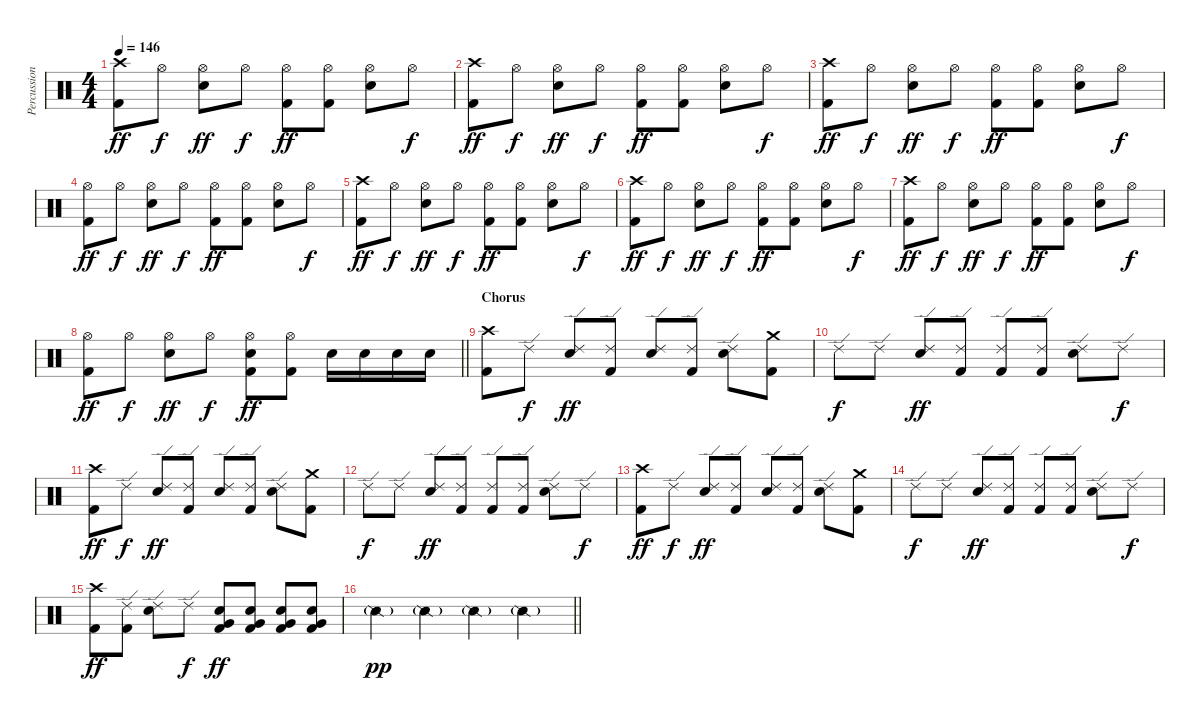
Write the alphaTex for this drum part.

\track ("Percussion" "Percussion") {instrument percussion}
\staff {score}
\articulation defaults
\ts (4 4)
\tempo 146
\clef neutral
\ks c
("Crash high (hit)" "Kick (hit) 2").8{dy ff} "Hi-Hat (open)".8{dy f} ("Hi-Hat (open)" "Snare (hit) 2").8{dy ff} "Hi-Hat (open)".8{dy f} ("Hi-Hat (open)" "Kick (hit) 2").8{dy ff} ("Hi-Hat (open)" "Kick (hit) 2").8 ("Hi-Hat (open)" "Snare (hit) 2").8 "Hi-Hat (open)".8{dy f} |
("Crash high (hit)" "Kick (hit) 2").8{dy ff} "Hi-Hat (open)".8{dy f} ("Hi-Hat (open)" "Snare (hit) 2").8{dy ff} "Hi-Hat (open)".8{dy f} ("Hi-Hat (open)" "Kick (hit) 2").8{dy ff} ("Hi-Hat (open)" "Kick (hit) 2").8 ("Hi-Hat (open)" "Snare (hit) 2").8 "Hi-Hat (open)".8{dy f} |
("Crash high (hit)" "Kick (hit) 2").8{dy ff} "Hi-Hat (open)".8{dy f} ("Hi-Hat (open)" "Snare (hit) 2").8{dy ff} "Hi-Hat (open)".8{dy f} ("Hi-Hat (open)" "Kick (hit) 2").8{dy ff} ("Hi-Hat (open)" "Kick (hit) 2").8 ("Hi-Hat (open)" "Snare (hit) 2").8 "Hi-Hat (open)".8{dy f} |
("Hi-Hat (open)" "Kick (hit) 2").8{dy ff} "Hi-Hat (open)".8{dy f} ("Hi-Hat (open)" "Snare (hit) 2").8{dy ff} "Hi-Hat (open)".8{dy f} ("Hi-Hat (open)" "Kick (hit) 2").8{dy ff} ("Hi-Hat (open)" "Kick (hit) 2").8 ("Hi-Hat (open)" "Snare (hit) 2").8 "Hi-Hat (open)".8{dy f} |
("Crash high (hit)" "Kick (hit) 2").8{dy ff} "Hi-Hat (open)".8{dy f} ("Hi-Hat (open)" "Snare (hit) 2").8{dy ff} "Hi-Hat (open)".8{dy f} ("Hi-Hat (open)" "Kick (hit) 2").8{dy ff} ("Hi-Hat (open)" "Kick (hit) 2").8 ("Hi-Hat (open)" "Snare (hit) 2").8 "Hi-Hat (open)".8{dy f} |
("Crash high (hit)" "Kick (hit) 2").8{dy ff} "Hi-Hat (open)".8{dy f} ("Hi-Hat (open)" "Snare (hit) 2").8{dy ff} "Hi-Hat (open)".8{dy f} ("Hi-Hat (open)" "Kick (hit) 2").8{dy ff} ("Hi-Hat (open)" "Kick (hit) 2").8 ("Hi-Hat (open)" "Snare (hit) 2").8 "Hi-Hat (open)".8{dy f} |
("Crash high (hit)" "Kick (hit) 2").8{dy ff} "Hi-Hat (open)".8{dy f} ("Hi-Hat (open)" "Snare (hit) 2").8{dy ff} "Hi-Hat (open)".8{dy f} ("Hi-Hat (open)" "Kick (hit) 2").8{dy ff} ("Hi-Hat (open)" "Kick (hit) 2").8 ("Hi-Hat (open)" "Snare (hit) 2").8 "Hi-Hat (open)".8{dy f} |
\barLineRight lightlight
("Hi-Hat (open)" "Kick (hit) 2").8{dy ff} "Hi-Hat (open)".8{dy f} ("Hi-Hat (open)" "Snare (hit) 2").8{dy ff} "Hi-Hat (open)".8{dy f} ("Hi-Hat (open)" "Snare (hit) 2" "Kick (hit) 2").8{dy ff} ("Hi-Hat (open)" "Kick (hit) 2").8 "Snare (hit) 2".16 "Snare (hit) 2".16 "Snare (hit) 2".16 "Snare (hit) 2".16 |
\section ("" "Chorus")
("Crash high (hit)" "Kick (hit) 2").8 "Ride (edge) 2".8{dy f} ("Ride (edge) 2" "Snare (hit) 2").8{dy ff} ("Ride (edge) 2" "Kick (hit) 2").8 ("Ride (edge) 2" "Snare (hit) 2").8 ("Ride (edge) 2" "Kick (hit) 2").8 ("Ride (edge) 2" "Snare (hit) 2").8 ("Crash medium (hit)" "Kick (hit) 2").8 |
"Ride (edge) 2".8{dy f} "Ride (edge) 2".8 ("Ride (edge) 2" "Snare (hit) 2").8{dy ff} ("Ride (edge) 2" "Kick (hit) 2").8 ("Ride (edge) 2" "Kick (hit) 2").8 ("Ride (edge) 2" "Kick (hit) 2").8 ("Ride (edge) 2" "Snare (hit) 2").8 "Ride (edge) 2".8{dy f} |
("Crash high (hit)" "Kick (hit) 2").8{dy ff} "Ride (edge) 2".8{dy f} ("Ride (edge) 2" "Snare (hit) 2").8{dy ff} ("Ride (edge) 2" "Kick (hit) 2").8 ("Ride (edge) 2" "Snare (hit) 2").8 ("Ride (edge) 2" "Kick (hit) 2").8 ("Ride (edge) 2" "Snare (hit) 2").8 ("Crash medium (hit)" "Kick (hit) 2").8 |
"Ride (edge) 2".8{dy f} "Ride (edge) 2".8 ("Ride (edge) 2" "Snare (hit) 2").8{dy ff} ("Ride (edge) 2" "Kick (hit) 2").8 ("Ride (edge) 2" "Kick (hit) 2").8 ("Ride (edge) 2" "Kick (hit) 2").8 ("Ride (edge) 2" "Snare (hit) 2").8 "Ride (edge) 2".8{dy f} |
("Crash high (hit)" "Kick (hit) 2").8{dy ff} "Ride (edge) 2".8{dy f} ("Ride (edge) 2" "Snare (hit) 2").8{dy ff} ("Ride (edge) 2" "Kick (hit) 2").8 ("Ride (edge) 2" "Snare (hit) 2").8 ("Ride (edge) 2" "Kick (hit) 2").8 ("Ride (edge) 2" "Snare (hit) 2").8 ("Crash medium (hit)" "Kick (hit) 2").8 |
"Ride (edge) 2".8{dy f} "Ride (edge) 2".8 ("Ride (edge) 2" "Snare (hit) 2").8{dy ff} ("Ride (edge) 2" "Kick (hit) 2").8 ("Ride (edge) 2" "Kick (hit) 2").8 ("Ride (edge) 2" "Kick (hit) 2").8 ("Ride (edge) 2" "Snare (hit) 2").8 "Ride (edge) 2".8{dy f} |
("Crash high (hit)" "Kick (hit) 2").8{dy ff} ("Ride (edge) 2" "Kick (hit) 2").8 ("Ride (edge) 2" "Snare (hit) 2").8 "Ride (edge) 2".8{dy f} ("Very Low Tom (hit)" "Snare (hit) 2" "Kick (hit) 2").8{dy ff} ("Very Low Tom (hit)" "Snare (hit) 2" "Kick (hit) 2").8 ("Very Low Tom (hit)" "Snare (hit) 2" "Kick (hit) 2").8 ("Very Low Tom (hit)" "Snare (hit) 2" "Kick (hit) 2").8 |
\barLineRight lightlight "Snare (side stick) 2"{g}.4{dy pp} "Snare (side stick) 2"{g}.4 "Snare (side stick) 2"{g}.4 "Snare (side stick) 2"{g}.4
